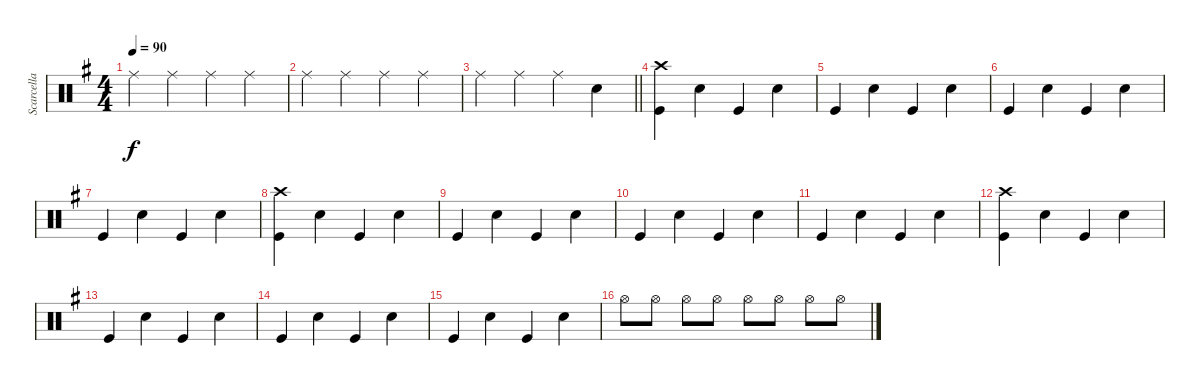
\track ("Scarcella" "Scarcella") {instrument percussion}
\staff {score}
\articulation defaults
\ts (4 4)
\tempo 90
\clef neutral
\ks eminor "Ride (middle)".4{dy f} "Ride (middle)".4 "Ride (middle)".4 "Ride (middle)".4
|
"Ride (middle)".4 "Ride (middle)".4 "Ride (middle)".4 "Ride (middle)".4 |
\barLineRight lightlight "Ride (middle)".4 "Ride (middle)".4 "Ride (middle)".4 "Snare (hit) 2".4
|
("Crash high (hit)" "Kick (hit)").4 "Snare (hit) 2".4 "Kick (hit)".4 "Snare (hit) 2".4 |
"Kick (hit)".4 "Snare (hit) 2".4 "Kick (hit)".4 "Snare (hit) 2".4 |
"Kick (hit)".4 "Snare (hit) 2".4 "Kick (hit)".4 "Snare (hit) 2".4 |
"Kick (hit)".4 "Snare (hit) 2".4 "Kick (hit)".4 "Snare (hit) 2".4 |
("Crash high (hit)" "Kick (hit)").4 "Snare (hit) 2".4 "Kick (hit)".4 "Snare (hit) 2".4 |
"Kick (hit)".4 "Snare (hit) 2".4 "Kick (hit)".4 "Snare (hit) 2".4 |
"Kick (hit)".4 "Snare (hit) 2".4 "Kick (hit)".4 "Snare (hit) 2".4 |
"Kick (hit)".4 "Snare (hit) 2".4 "Kick (hit)".4 "Snare (hit) 2".4 |
("Crash high (hit)" "Kick (hit)").4 "Snare (hit) 2".4 "Kick (hit)".4 "Snare (hit) 2".4 |
"Kick (hit)".4 "Snare (hit) 2".4 "Kick (hit)".4 "Snare (hit) 2".4 |
"Kick (hit)".4 "Snare (hit) 2".4 "Kick (hit)".4 "Snare (hit) 2".4 |
"Kick (hit)".4 "Snare (hit) 2".4 "Kick (hit)".4 "Snare (hit) 2".4 |
"Hi-Hat (open)".8 "Hi-Hat (open)".8 "Hi-Hat (open)".8 "Hi-Hat (open)".8 "Hi-Hat (open)".8 "Hi-Hat (open)".8 "Hi-Hat (open)".8 "Hi-Hat (open)".8
